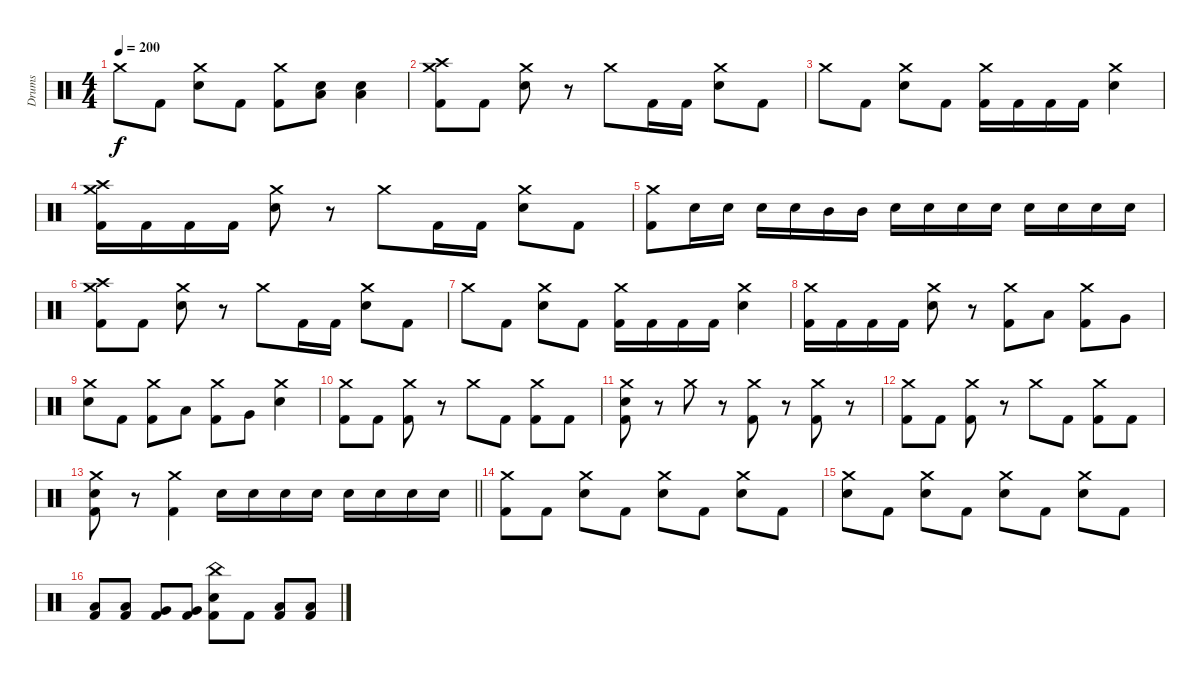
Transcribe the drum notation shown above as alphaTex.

\track ("Drums" "Drums") {instrument percussion}
\staff {score}
\articulation defaults
\ts (4 4)
\tempo 200
\clef neutral
\ks c "Crash medium (hit)".8{dy f} "Kick (hit) 2".8
("Crash medium (hit)" "Electric Snare (hit)").8 "Kick (hit) 2".8 ("Crash medium (hit)" "Kick (hit) 2").8 ("Low Floor Tom (hit)" "Electric Snare (hit)").8 ("Low Floor Tom (hit)" "Electric Snare (hit)").4 |
("Crash medium (hit)" "Crash high (hit)" "Kick (hit) 2").8 "Kick (hit) 2".8 ("Crash medium (hit)" "Electric Snare (hit)").8 r.8 "Crash medium (hit)".8 "Kick (hit) 2".16 "Kick (hit) 2".16 ("Crash medium (hit)" "Electric Snare (hit)").8 "Kick (hit) 2".8 |
"Crash medium (hit)".8 "Kick (hit) 2".8 ("Crash medium (hit)" "Electric Snare (hit)").8 "Kick (hit) 2".8 ("Crash medium (hit)" "Kick (hit) 2").16 "Kick (hit) 2".16 "Kick (hit) 2".16 "Kick (hit) 2".16 ("Crash medium (hit)" "Electric Snare (hit)").4 |
("Crash medium (hit)" "Crash high (hit)" "Kick (hit) 2").16 "Kick (hit) 2".16 "Kick (hit) 2".16 "Kick (hit) 2".16 ("Crash medium (hit)" "Electric Snare (hit)").8 r.8 "Crash medium (hit)".8 "Kick (hit) 2".16 "Kick (hit) 2".16 ("Crash medium (hit)" "Electric Snare (hit)").8 "Kick (hit) 2".8 |
("Crash medium (hit)" "Kick (hit) 2").8 "Electric Snare (hit)".16 "Electric Snare (hit)".16 "Electric Snare (hit)".16 "Electric Snare (hit)".16 "Mid Tom (hit)".16 "Mid Tom (hit)".16 "Electric Snare (hit)".16 "Electric Snare (hit)".16 "Electric Snare (hit)".16 "Electric Snare (hit)".16 "Electric Snare (hit)".16 "Electric Snare (hit)".16 "Electric Snare (hit)".16 "Electric Snare (hit)".16 |
("Crash medium (hit)" "Crash high (hit)" "Kick (hit) 2").8 "Kick (hit) 2".8 ("Crash medium (hit)" "Electric Snare (hit)").8 r.8 "Crash medium (hit)".8 "Kick (hit) 2".16 "Kick (hit) 2".16 ("Crash medium (hit)" "Electric Snare (hit)").8 "Kick (hit) 2".8 |
"Crash medium (hit)".8 "Kick (hit) 2".8 ("Crash medium (hit)" "Electric Snare (hit)").8 "Kick (hit) 2".8 ("Crash medium (hit)" "Kick (hit) 2").16 "Kick (hit) 2".16 "Kick (hit) 2".16 "Kick (hit) 2".16 ("Crash medium (hit)" "Electric Snare (hit)").4 |
("Crash medium (hit)" "Kick (hit) 2").16 "Kick (hit) 2".16 "Kick (hit) 2".16 "Kick (hit) 2".16 ("Crash medium (hit)" "Electric Snare (hit)").8 r.8 ("Crash medium (hit)" "Kick (hit) 2").8 "Low Tom (hit)".8 ("Crash medium (hit)" "Kick (hit) 2").8 "Very Low Tom (hit)".8 |
("Crash medium (hit)" "Electric Snare (hit)").8 "Kick (hit) 2".8 ("Crash medium (hit)" "Kick (hit) 2").8 "Low Tom (hit)".8 ("Crash medium (hit)" "Kick (hit) 2").8 "Very Low Tom (hit)".8 ("Crash medium (hit)" "Electric Snare (hit)").4 |
("Crash medium (hit)" "Kick (hit) 2").8 "Kick (hit) 2".8 ("Crash medium (hit)" "Kick (hit) 2").8 r.8 "Crash medium (hit)".8 "Kick (hit) 2".8 ("Crash medium (hit)" "Kick (hit) 2").8 "Kick (hit) 2".8 |
("Crash medium (hit)" "Electric Snare (hit)" "Kick (hit) 2").8 r.8 "Crash medium (hit)".8 r.8 ("Crash medium (hit)" "Kick (hit) 2").8 r.8 ("Crash medium (hit)" "Kick (hit) 2").8 r.8 |
("Crash medium (hit)" "Kick (hit) 2").8 "Kick (hit) 2".8 ("Crash medium (hit)" "Kick (hit) 2").8 r.8 "Crash medium (hit)".8 "Kick (hit) 2".8 ("Crash medium (hit)" "Kick (hit) 2").8 "Kick (hit) 2".8 |
\barLineRight lightlight
("Crash medium (hit)" "Electric Snare (hit)" "Kick (hit) 2").8 r.8 ("Crash medium (hit)" "Kick (hit) 2").4 "Electric Snare (hit)".16 "Electric Snare (hit)".16 "Electric Snare (hit)".16 "Electric Snare (hit)".16 "Electric Snare (hit)".16 "Electric Snare (hit)".16 "Electric Snare (hit)".16 "Electric Snare (hit)".16 |
("Crash medium (hit)" "Kick (hit) 2").8 "Kick (hit) 2".8 ("Crash medium (hit)" "Electric Snare (hit)").8 "Kick (hit) 2".8 ("Crash medium (hit)" "Electric Snare (hit)").8 "Kick (hit) 2".8 ("Crash medium (hit)" "Electric Snare (hit)").8 "Kick (hit) 2".8 |
("Crash medium (hit)" "Electric Snare (hit)").8 "Kick (hit) 2".8 ("Crash medium (hit)" "Electric Snare (hit)").8 "Kick (hit) 2".8 ("Crash medium (hit)" "Electric Snare (hit)").8 "Kick (hit) 2".8 ("Crash medium (hit)" "Electric Snare (hit)").8 "Kick (hit) 2".8 |
("Low Tom (hit)" "Kick (hit) 2").8 ("Low Tom (hit)" "Kick (hit) 2").8 ("Very Low Tom (hit)" "Kick (hit) 2").8 ("Very Low Tom (hit)" "Kick (hit) 2").8 ("China (hit)" "Electric Snare (hit)" "Kick (hit) 2").8 "Kick (hit) 2".8 ("Low Tom (hit)" "Kick (hit) 2").8 ("Low Tom (hit)" "Kick (hit) 2").8
